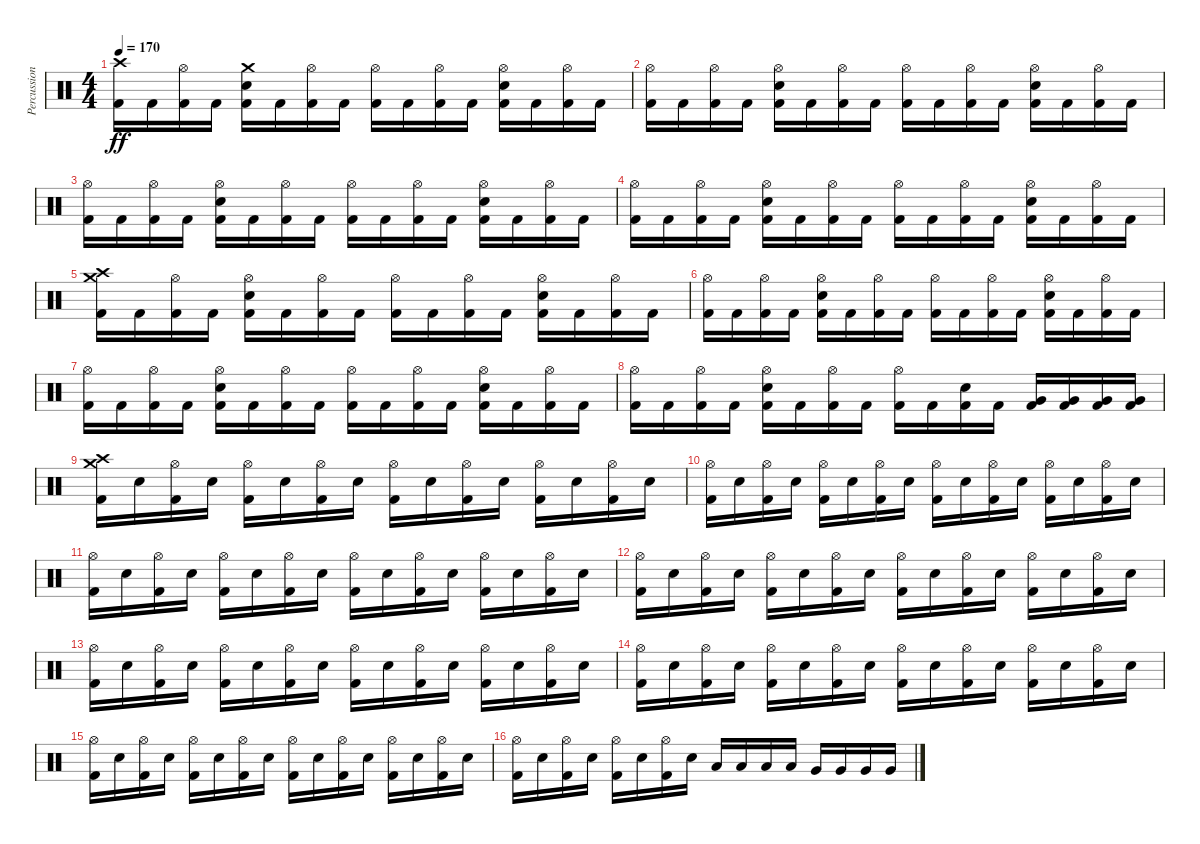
\track ("Percussion" "Percussion") {instrument percussion}
\staff {score}
\articulation defaults
\ts (4 4)
\tempo 170
\clef neutral
\ks c
("Kick (hit) 2" "Crash high (hit)").16{dy ff} "Kick (hit) 2".16 ("Kick (hit) 2" "Hi-Hat (open)").16 "Kick (hit) 2".16 ("Kick (hit) 2" "Electric Snare (hit)" "Crash medium (hit)").16 "Kick (hit) 2".16 ("Kick (hit) 2" "Hi-Hat (open)").16 "Kick (hit) 2".16 ("Kick (hit) 2" "Hi-Hat (open)").16 "Kick (hit) 2".16 ("Kick (hit) 2" "Hi-Hat (open)").16 "Kick (hit) 2".16 ("Kick (hit) 2" "Electric Snare (hit)" "Hi-Hat (open)").16 "Kick (hit) 2".16 ("Kick (hit) 2" "Hi-Hat (open)").16 "Kick (hit) 2".16 |
("Kick (hit) 2" "Hi-Hat (open)").16 "Kick (hit) 2".16 ("Kick (hit) 2" "Hi-Hat (open)").16 "Kick (hit) 2".16 ("Kick (hit) 2" "Electric Snare (hit)" "Hi-Hat (open)").16 "Kick (hit) 2".16 ("Kick (hit) 2" "Hi-Hat (open)").16 "Kick (hit) 2".16 ("Kick (hit) 2" "Hi-Hat (open)").16 "Kick (hit) 2".16 ("Kick (hit) 2" "Hi-Hat (open)").16 "Kick (hit) 2".16 ("Kick (hit) 2" "Electric Snare (hit)" "Hi-Hat (open)").16 "Kick (hit) 2".16 ("Kick (hit) 2" "Hi-Hat (open)").16 "Kick (hit) 2".16 |
("Kick (hit) 2" "Hi-Hat (open)").16 "Kick (hit) 2".16 ("Kick (hit) 2" "Hi-Hat (open)").16 "Kick (hit) 2".16 ("Kick (hit) 2" "Electric Snare (hit)" "Hi-Hat (open)").16 "Kick (hit) 2".16 ("Kick (hit) 2" "Hi-Hat (open)").16 "Kick (hit) 2".16 ("Kick (hit) 2" "Hi-Hat (open)").16 "Kick (hit) 2".16 ("Kick (hit) 2" "Hi-Hat (open)").16 "Kick (hit) 2".16 ("Kick (hit) 2" "Electric Snare (hit)" "Hi-Hat (open)").16 "Kick (hit) 2".16 ("Kick (hit) 2" "Hi-Hat (open)").16 "Kick (hit) 2".16 |
("Kick (hit) 2" "Hi-Hat (open)").16 "Kick (hit) 2".16 ("Kick (hit) 2" "Hi-Hat (open)").16 "Kick (hit) 2".16 ("Kick (hit) 2" "Electric Snare (hit)" "Hi-Hat (open)").16 "Kick (hit) 2".16 ("Kick (hit) 2" "Hi-Hat (open)").16 "Kick (hit) 2".16 ("Kick (hit) 2" "Hi-Hat (open)").16 "Kick (hit) 2".16 ("Kick (hit) 2" "Hi-Hat (open)").16 "Kick (hit) 2".16 ("Kick (hit) 2" "Electric Snare (hit)" "Hi-Hat (open)").16 "Kick (hit) 2".16 ("Kick (hit) 2" "Hi-Hat (open)").16 "Kick (hit) 2".16 |
("Kick (hit) 2" "Crash medium (hit)" "Crash high (hit)").16 "Kick (hit) 2".16 ("Kick (hit) 2" "Hi-Hat (open)").16 "Kick (hit) 2".16 ("Kick (hit) 2" "Electric Snare (hit)" "Hi-Hat (open)").16 "Kick (hit) 2".16 ("Kick (hit) 2" "Hi-Hat (open)").16 "Kick (hit) 2".16 ("Kick (hit) 2" "Hi-Hat (open)").16 "Kick (hit) 2".16 ("Kick (hit) 2" "Hi-Hat (open)").16 "Kick (hit) 2".16 ("Kick (hit) 2" "Electric Snare (hit)" "Hi-Hat (open)").16 "Kick (hit) 2".16 ("Kick (hit) 2" "Hi-Hat (open)").16 "Kick (hit) 2".16 |
("Kick (hit) 2" "Hi-Hat (open)").16 "Kick (hit) 2".16 ("Kick (hit) 2" "Hi-Hat (open)").16 "Kick (hit) 2".16 ("Kick (hit) 2" "Electric Snare (hit)" "Hi-Hat (open)").16 "Kick (hit) 2".16 ("Kick (hit) 2" "Hi-Hat (open)").16 "Kick (hit) 2".16 ("Kick (hit) 2" "Hi-Hat (open)").16 "Kick (hit) 2".16 ("Kick (hit) 2" "Hi-Hat (open)").16 "Kick (hit) 2".16 ("Kick (hit) 2" "Electric Snare (hit)" "Hi-Hat (open)").16 "Kick (hit) 2".16 ("Kick (hit) 2" "Hi-Hat (open)").16 "Kick (hit) 2".16 |
("Kick (hit) 2" "Hi-Hat (open)").16 "Kick (hit) 2".16 ("Kick (hit) 2" "Hi-Hat (open)").16 "Kick (hit) 2".16 ("Kick (hit) 2" "Electric Snare (hit)" "Hi-Hat (open)").16 "Kick (hit) 2".16 ("Kick (hit) 2" "Hi-Hat (open)").16 "Kick (hit) 2".16 ("Kick (hit) 2" "Hi-Hat (open)").16 "Kick (hit) 2".16 ("Kick (hit) 2" "Hi-Hat (open)").16 "Kick (hit) 2".16 ("Kick (hit) 2" "Electric Snare (hit)" "Hi-Hat (open)").16 "Kick (hit) 2".16 ("Kick (hit) 2" "Hi-Hat (open)").16 "Kick (hit) 2".16 |
("Kick (hit) 2" "Hi-Hat (open)").16 "Kick (hit) 2".16 ("Kick (hit) 2" "Hi-Hat (open)").16 "Kick (hit) 2".16 ("Kick (hit) 2" "Electric Snare (hit)" "Hi-Hat (open)").16 "Kick (hit) 2".16 ("Kick (hit) 2" "Hi-Hat (open)").16 "Kick (hit) 2".16 ("Kick (hit) 2" "Hi-Hat (open)").16 "Kick (hit) 2".16 ("Kick (hit) 2" "Electric Snare (hit)").16 "Kick (hit) 2".16 ("Kick (hit) 2" "Very Low Tom (hit)").16 ("Kick (hit) 2" "Very Low Tom (hit)").16 ("Kick (hit) 2" "Very Low Tom (hit)").16 ("Kick (hit) 2" "Very Low Tom (hit)").16 |
("Kick (hit) 2" "Crash medium (hit)" "Crash high (hit)").16 "Electric Snare (hit)".16 ("Kick (hit) 2" "Hi-Hat (open)").16 "Electric Snare (hit)".16 ("Kick (hit) 2" "Hi-Hat (open)").16 "Electric Snare (hit)".16 ("Kick (hit) 2" "Hi-Hat (open)").16 "Electric Snare (hit)".16 ("Kick (hit) 2" "Hi-Hat (open)").16 "Electric Snare (hit)".16 ("Kick (hit) 2" "Hi-Hat (open)").16 "Electric Snare (hit)".16 ("Kick (hit) 2" "Hi-Hat (open)").16 "Electric Snare (hit)".16 ("Kick (hit) 2" "Hi-Hat (open)").16 "Electric Snare (hit)".16 |
("Kick (hit) 2" "Hi-Hat (open)").16 "Electric Snare (hit)".16 ("Kick (hit) 2" "Hi-Hat (open)").16 "Electric Snare (hit)".16 ("Kick (hit) 2" "Hi-Hat (open)").16 "Electric Snare (hit)".16 ("Kick (hit) 2" "Hi-Hat (open)").16 "Electric Snare (hit)".16 ("Kick (hit) 2" "Hi-Hat (open)").16 "Electric Snare (hit)".16 ("Kick (hit) 2" "Hi-Hat (open)").16 "Electric Snare (hit)".16 ("Kick (hit) 2" "Hi-Hat (open)").16 "Electric Snare (hit)".16 ("Kick (hit) 2" "Hi-Hat (open)").16 "Electric Snare (hit)".16 |
("Kick (hit) 2" "Hi-Hat (open)").16 "Electric Snare (hit)".16 ("Kick (hit) 2" "Hi-Hat (open)").16 "Electric Snare (hit)".16 ("Kick (hit) 2" "Hi-Hat (open)").16 "Electric Snare (hit)".16 ("Kick (hit) 2" "Hi-Hat (open)").16 "Electric Snare (hit)".16 ("Kick (hit) 2" "Hi-Hat (open)").16 "Electric Snare (hit)".16 ("Kick (hit) 2" "Hi-Hat (open)").16 "Electric Snare (hit)".16 ("Kick (hit) 2" "Hi-Hat (open)").16 "Electric Snare (hit)".16 ("Kick (hit) 2" "Hi-Hat (open)").16 "Electric Snare (hit)".16 |
("Kick (hit) 2" "Hi-Hat (open)").16 "Electric Snare (hit)".16 ("Kick (hit) 2" "Hi-Hat (open)").16 "Electric Snare (hit)".16 ("Kick (hit) 2" "Hi-Hat (open)").16 "Electric Snare (hit)".16 ("Kick (hit) 2" "Hi-Hat (open)").16 "Electric Snare (hit)".16 ("Kick (hit) 2" "Hi-Hat (open)").16 "Electric Snare (hit)".16 ("Kick (hit) 2" "Hi-Hat (open)").16 "Electric Snare (hit)".16 ("Kick (hit) 2" "Hi-Hat (open)").16 "Electric Snare (hit)".16 ("Kick (hit) 2" "Hi-Hat (open)").16 "Electric Snare (hit)".16 |
("Kick (hit) 2" "Hi-Hat (open)").16 "Electric Snare (hit)".16 ("Kick (hit) 2" "Hi-Hat (open)").16 "Electric Snare (hit)".16 ("Kick (hit) 2" "Hi-Hat (open)").16 "Electric Snare (hit)".16 ("Kick (hit) 2" "Hi-Hat (open)").16 "Electric Snare (hit)".16 ("Kick (hit) 2" "Hi-Hat (open)").16 "Electric Snare (hit)".16 ("Kick (hit) 2" "Hi-Hat (open)").16 "Electric Snare (hit)".16 ("Kick (hit) 2" "Hi-Hat (open)").16 "Electric Snare (hit)".16 ("Kick (hit) 2" "Hi-Hat (open)").16 "Electric Snare (hit)".16 |
("Kick (hit) 2" "Hi-Hat (open)").16 "Electric Snare (hit)".16 ("Kick (hit) 2" "Hi-Hat (open)").16 "Electric Snare (hit)".16 ("Kick (hit) 2" "Hi-Hat (open)").16 "Electric Snare (hit)".16 ("Kick (hit) 2" "Hi-Hat (open)").16 "Electric Snare (hit)".16 ("Kick (hit) 2" "Hi-Hat (open)").16 "Electric Snare (hit)".16 ("Kick (hit) 2" "Hi-Hat (open)").16 "Electric Snare (hit)".16 ("Kick (hit) 2" "Hi-Hat (open)").16 "Electric Snare (hit)".16 ("Kick (hit) 2" "Hi-Hat (open)").16 "Electric Snare (hit)".16 |
("Kick (hit) 2" "Hi-Hat (open)").16 "Electric Snare (hit)".16 ("Kick (hit) 2" "Hi-Hat (open)").16 "Electric Snare (hit)".16 ("Kick (hit) 2" "Hi-Hat (open)").16 "Electric Snare (hit)".16 ("Kick (hit) 2" "Hi-Hat (open)").16 "Electric Snare (hit)".16 ("Kick (hit) 2" "Hi-Hat (open)").16 "Electric Snare (hit)".16 ("Kick (hit) 2" "Hi-Hat (open)").16 "Electric Snare (hit)".16 ("Kick (hit) 2" "Hi-Hat (open)").16 "Electric Snare (hit)".16 ("Kick (hit) 2" "Hi-Hat (open)").16 "Electric Snare (hit)".16 |
("Kick (hit) 2" "Hi-Hat (open)").16 "Electric Snare (hit)".16 ("Kick (hit) 2" "Hi-Hat (open)").16 "Electric Snare (hit)".16 ("Kick (hit) 2" "Hi-Hat (open)").16 "Electric Snare (hit)".16 ("Kick (hit) 2" "Hi-Hat (open)").16 "Electric Snare (hit)".16 "Low Tom (hit)".16 "Low Tom (hit)".16 "Low Tom (hit)".16 "Low Tom (hit)".16 "Very Low Tom (hit)".16 "Very Low Tom (hit)".16 "Very Low Tom (hit)".16 "Very Low Tom (hit)".16
